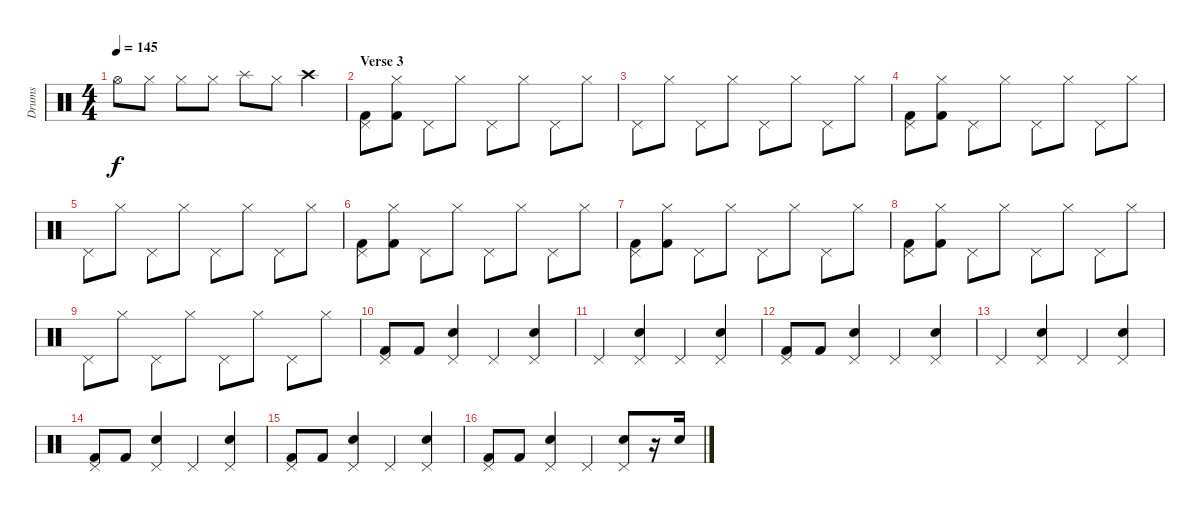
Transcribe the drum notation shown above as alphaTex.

\track ("Drums" "Drums") {instrument percussion}
\staff {score}
\articulation defaults
\ts (4 4)
\tempo 145
\clef neutral
\ks c "Hi-Hat (open)".8{dy f} "Hi-Hat (closed)".8 "Hi-Hat (closed)".8 "Hi-Hat (closed)".8 "Splash (hit)".8 "Hi-Hat (closed)".8 "Crash high (hit)".4
|
\section ("" "Verse 3")
("Kick (hit) 2" "Pedal Hi-Hat (hit)").8 ("Kick (hit) 2" "Hi-Hat (closed)").8 "Pedal Hi-Hat (hit)".8 "Hi-Hat (closed)".8 "Pedal Hi-Hat (hit)".8 "Hi-Hat (closed)".8 "Pedal Hi-Hat (hit)".8 "Hi-Hat (closed)".8 |
"Pedal Hi-Hat (hit)".8 "Hi-Hat (closed)".8 "Pedal Hi-Hat (hit)".8 "Hi-Hat (closed)".8 "Pedal Hi-Hat (hit)".8 "Hi-Hat (closed)".8 "Pedal Hi-Hat (hit)".8 "Hi-Hat (closed)".8 |
("Kick (hit) 2" "Pedal Hi-Hat (hit)").8 ("Kick (hit) 2" "Hi-Hat (closed)").8 "Pedal Hi-Hat (hit)".8 "Hi-Hat (closed)".8 "Pedal Hi-Hat (hit)".8 "Hi-Hat (closed)".8 "Pedal Hi-Hat (hit)".8 "Hi-Hat (closed)".8 |
"Pedal Hi-Hat (hit)".8 "Hi-Hat (closed)".8 "Pedal Hi-Hat (hit)".8 "Hi-Hat (closed)".8 "Pedal Hi-Hat (hit)".8 "Hi-Hat (closed)".8 "Pedal Hi-Hat (hit)".8 "Hi-Hat (closed)".8 |
("Kick (hit) 2" "Pedal Hi-Hat (hit)").8 ("Kick (hit) 2" "Hi-Hat (closed)").8 "Pedal Hi-Hat (hit)".8 "Hi-Hat (closed)".8 "Pedal Hi-Hat (hit)".8 "Hi-Hat (closed)".8 "Pedal Hi-Hat (hit)".8 "Hi-Hat (closed)".8 |
("Kick (hit) 2" "Pedal Hi-Hat (hit)").8 ("Kick (hit) 2" "Hi-Hat (closed)").8 "Pedal Hi-Hat (hit)".8 "Hi-Hat (closed)".8 "Pedal Hi-Hat (hit)".8 "Hi-Hat (closed)".8 "Pedal Hi-Hat (hit)".8 "Hi-Hat (closed)".8 |
("Kick (hit) 2" "Pedal Hi-Hat (hit)").8 ("Kick (hit) 2" "Hi-Hat (closed)").8 "Pedal Hi-Hat (hit)".8 "Hi-Hat (closed)".8 "Pedal Hi-Hat (hit)".8 "Hi-Hat (closed)".8 "Pedal Hi-Hat (hit)".8 "Hi-Hat (closed)".8 |
"Pedal Hi-Hat (hit)".8 "Hi-Hat (closed)".8 "Pedal Hi-Hat (hit)".8 "Hi-Hat (closed)".8 "Pedal Hi-Hat (hit)".8 "Hi-Hat (closed)".8 "Pedal Hi-Hat (hit)".8 "Hi-Hat (closed)".8 |
("Kick (hit) 2" "Pedal Hi-Hat (hit)").8 "Kick (hit) 2".8 ("Electric Snare (hit)" "Pedal Hi-Hat (hit)").4 "Pedal Hi-Hat (hit)".4 ("Electric Snare (hit)" "Pedal Hi-Hat (hit)").4 |
"Pedal Hi-Hat (hit)".4 ("Electric Snare (hit)" "Pedal Hi-Hat (hit)").4 "Pedal Hi-Hat (hit)".4 ("Electric Snare (hit)" "Pedal Hi-Hat (hit)").4 |
("Kick (hit) 2" "Pedal Hi-Hat (hit)").8 "Kick (hit) 2".8 ("Electric Snare (hit)" "Pedal Hi-Hat (hit)").4 "Pedal Hi-Hat (hit)".4 ("Electric Snare (hit)" "Pedal Hi-Hat (hit)").4 |
"Pedal Hi-Hat (hit)".4 ("Electric Snare (hit)" "Pedal Hi-Hat (hit)").4 "Pedal Hi-Hat (hit)".4 ("Electric Snare (hit)" "Pedal Hi-Hat (hit)").4 |
("Kick (hit) 2" "Pedal Hi-Hat (hit)").8 "Kick (hit) 2".8 ("Electric Snare (hit)" "Pedal Hi-Hat (hit)").4 "Pedal Hi-Hat (hit)".4 ("Electric Snare (hit)" "Pedal Hi-Hat (hit)").4 |
("Kick (hit) 2" "Pedal Hi-Hat (hit)").8 "Kick (hit) 2".8 ("Electric Snare (hit)" "Pedal Hi-Hat (hit)").4 "Pedal Hi-Hat (hit)".4 ("Electric Snare (hit)" "Pedal Hi-Hat (hit)").4 |
("Kick (hit) 2" "Pedal Hi-Hat (hit)").8 "Kick (hit) 2".8 ("Electric Snare (hit)" "Pedal Hi-Hat (hit)").4 "Pedal Hi-Hat (hit)".4 ("Electric Snare (hit)" "Pedal Hi-Hat (hit)").8 r.16 "Electric Snare (hit)".16
